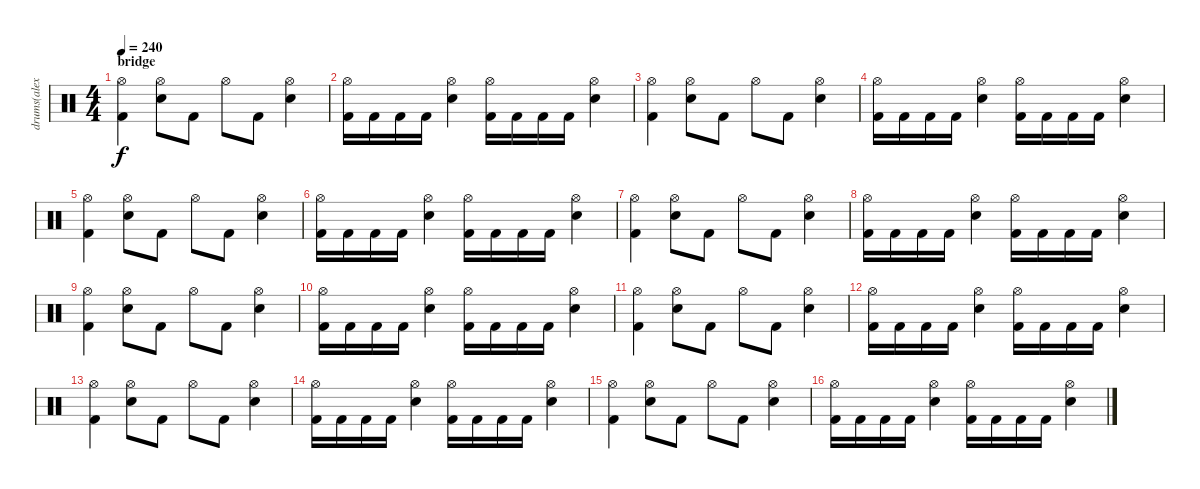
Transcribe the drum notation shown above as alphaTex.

\track ("drums(alex holzshwart)" "drums(alex") {instrument percussion}
\staff {score}
\articulation defaults
\ts (4 4)
\section ("" "bridge")
\tempo 240
\clef neutral
\ks c
("Hi-Hat (open)" "Kick (hit) 2").4{dy f} ("Hi-Hat (open)" "Electric Snare (hit)").8 "Kick (hit) 2".8 "Hi-Hat (open)".8 "Kick (hit) 2".8 ("Hi-Hat (open)" "Electric Snare (hit)").4 |
("Hi-Hat (open)" "Kick (hit) 2").16 "Kick (hit) 2".16 "Kick (hit) 2".16 "Kick (hit) 2".16 ("Hi-Hat (open)" "Electric Snare (hit)").4 ("Hi-Hat (open)" "Kick (hit) 2").16 "Kick (hit) 2".16 "Kick (hit) 2".16 "Kick (hit) 2".16 ("Hi-Hat (open)" "Electric Snare (hit)").4 |
("Hi-Hat (open)" "Kick (hit) 2").4 ("Hi-Hat (open)" "Electric Snare (hit)").8 "Kick (hit) 2".8 "Hi-Hat (open)".8 "Kick (hit) 2".8 ("Hi-Hat (open)" "Electric Snare (hit)").4 |
("Hi-Hat (open)" "Kick (hit) 2").16 "Kick (hit) 2".16 "Kick (hit) 2".16 "Kick (hit) 2".16 ("Hi-Hat (open)" "Electric Snare (hit)").4 ("Hi-Hat (open)" "Kick (hit) 2").16 "Kick (hit) 2".16 "Kick (hit) 2".16 "Kick (hit) 2".16 ("Hi-Hat (open)" "Electric Snare (hit)").4 |
("Hi-Hat (open)" "Kick (hit) 2").4 ("Hi-Hat (open)" "Electric Snare (hit)").8 "Kick (hit) 2".8 "Hi-Hat (open)".8 "Kick (hit) 2".8 ("Hi-Hat (open)" "Electric Snare (hit)").4 |
("Hi-Hat (open)" "Kick (hit) 2").16 "Kick (hit) 2".16 "Kick (hit) 2".16 "Kick (hit) 2".16 ("Hi-Hat (open)" "Electric Snare (hit)").4 ("Hi-Hat (open)" "Kick (hit) 2").16 "Kick (hit) 2".16 "Kick (hit) 2".16 "Kick (hit) 2".16 ("Hi-Hat (open)" "Electric Snare (hit)").4 |
("Hi-Hat (open)" "Kick (hit) 2").4 ("Hi-Hat (open)" "Electric Snare (hit)").8 "Kick (hit) 2".8 "Hi-Hat (open)".8 "Kick (hit) 2".8 ("Hi-Hat (open)" "Electric Snare (hit)").4 |
("Hi-Hat (open)" "Kick (hit) 2").16 "Kick (hit) 2".16 "Kick (hit) 2".16 "Kick (hit) 2".16 ("Hi-Hat (open)" "Electric Snare (hit)").4 ("Hi-Hat (open)" "Kick (hit) 2").16 "Kick (hit) 2".16 "Kick (hit) 2".16 "Kick (hit) 2".16 ("Hi-Hat (open)" "Electric Snare (hit)").4 |
("Hi-Hat (open)" "Kick (hit) 2").4 ("Hi-Hat (open)" "Electric Snare (hit)").8 "Kick (hit) 2".8 "Hi-Hat (open)".8 "Kick (hit) 2".8 ("Hi-Hat (open)" "Electric Snare (hit)").4 |
("Hi-Hat (open)" "Kick (hit) 2").16 "Kick (hit) 2".16 "Kick (hit) 2".16 "Kick (hit) 2".16 ("Hi-Hat (open)" "Electric Snare (hit)").4 ("Hi-Hat (open)" "Kick (hit) 2").16 "Kick (hit) 2".16 "Kick (hit) 2".16 "Kick (hit) 2".16 ("Hi-Hat (open)" "Electric Snare (hit)").4 |
("Hi-Hat (open)" "Kick (hit) 2").4 ("Hi-Hat (open)" "Electric Snare (hit)").8 "Kick (hit) 2".8 "Hi-Hat (open)".8 "Kick (hit) 2".8 ("Hi-Hat (open)" "Electric Snare (hit)").4 |
("Hi-Hat (open)" "Kick (hit) 2").16 "Kick (hit) 2".16 "Kick (hit) 2".16 "Kick (hit) 2".16 ("Hi-Hat (open)" "Electric Snare (hit)").4 ("Hi-Hat (open)" "Kick (hit) 2").16 "Kick (hit) 2".16 "Kick (hit) 2".16 "Kick (hit) 2".16 ("Hi-Hat (open)" "Electric Snare (hit)").4 |
("Hi-Hat (open)" "Kick (hit) 2").4 ("Hi-Hat (open)" "Electric Snare (hit)").8 "Kick (hit) 2".8 "Hi-Hat (open)".8 "Kick (hit) 2".8 ("Hi-Hat (open)" "Electric Snare (hit)").4 |
("Hi-Hat (open)" "Kick (hit) 2").16 "Kick (hit) 2".16 "Kick (hit) 2".16 "Kick (hit) 2".16 ("Hi-Hat (open)" "Electric Snare (hit)").4 ("Hi-Hat (open)" "Kick (hit) 2").16 "Kick (hit) 2".16 "Kick (hit) 2".16 "Kick (hit) 2".16 ("Hi-Hat (open)" "Electric Snare (hit)").4 |
("Hi-Hat (open)" "Kick (hit) 2").4 ("Hi-Hat (open)" "Electric Snare (hit)").8 "Kick (hit) 2".8 "Hi-Hat (open)".8 "Kick (hit) 2".8 ("Hi-Hat (open)" "Electric Snare (hit)").4 |
("Hi-Hat (open)" "Kick (hit) 2").16 "Kick (hit) 2".16 "Kick (hit) 2".16 "Kick (hit) 2".16 ("Hi-Hat (open)" "Electric Snare (hit)").4 ("Hi-Hat (open)" "Kick (hit) 2").16 "Kick (hit) 2".16 "Kick (hit) 2".16 "Kick (hit) 2".16 ("Hi-Hat (open)" "Electric Snare (hit)").4
